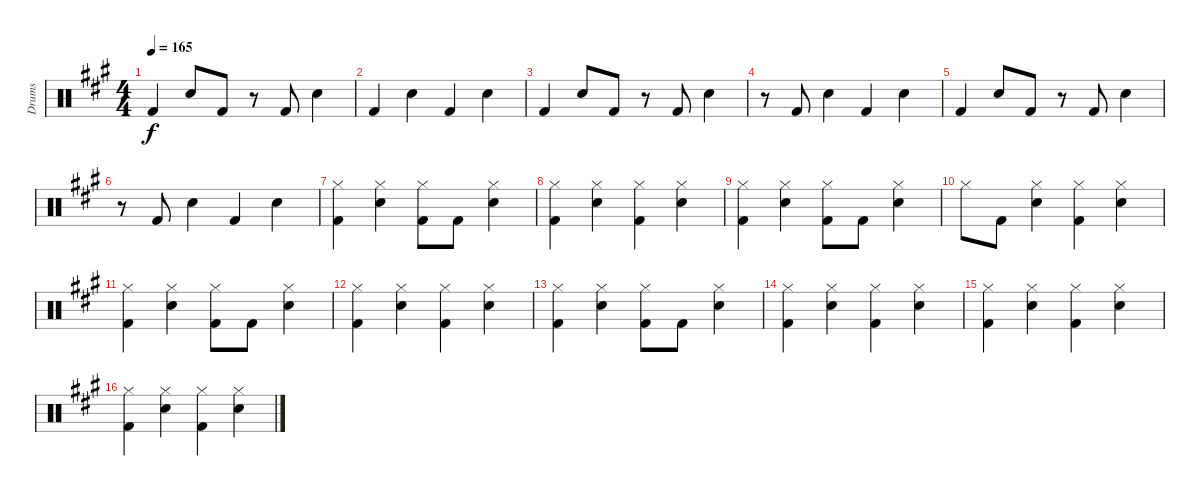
\track ("Drums" "Drums") {instrument percussion}
\staff {score}
\articulation defaults
\ts (4 4)
\tempo 165
\clef neutral
\ks a "Kick (hit) 2".4{dy f} "Electric Snare (hit)".8 "Kick (hit) 2".8
r.8 "Kick (hit) 2".8 "Electric Snare (hit)".4 |
"Kick (hit) 2".4 "Electric Snare (hit)".4 "Kick (hit) 2".4 "Electric Snare (hit)".4 |
"Kick (hit) 2".4 "Electric Snare (hit)".8 "Kick (hit) 2".8 r.8 "Kick (hit) 2".8 "Electric Snare (hit)".4 |
r.8 "Kick (hit) 2".8 "Electric Snare (hit)".4 "Kick (hit) 2".4 "Electric Snare (hit)".4 |
"Kick (hit) 2".4 "Electric Snare (hit)".8 "Kick (hit) 2".8 r.8 "Kick (hit) 2".8 "Electric Snare (hit)".4 |
r.8 "Kick (hit) 2".8 "Electric Snare (hit)".4 "Kick (hit) 2".4 "Electric Snare (hit)".4 |
("Hi-Hat (closed)" "Kick (hit) 2").4 ("Hi-Hat (closed)" "Electric Snare (hit)").4 ("Hi-Hat (closed)" "Kick (hit) 2").8 "Kick (hit) 2".8 ("Hi-Hat (closed)" "Electric Snare (hit)").4 |
("Hi-Hat (closed)" "Kick (hit) 2").4 ("Hi-Hat (closed)" "Electric Snare (hit)").4 ("Hi-Hat (closed)" "Kick (hit) 2").4 ("Hi-Hat (closed)" "Electric Snare (hit)").4 |
("Hi-Hat (closed)" "Kick (hit) 2").4 ("Hi-Hat (closed)" "Electric Snare (hit)").4 ("Hi-Hat (closed)" "Kick (hit) 2").8 "Kick (hit) 2".8 ("Hi-Hat (closed)" "Electric Snare (hit)").4 |
"Hi-Hat (closed)".8 "Kick (hit) 2".8 ("Hi-Hat (closed)" "Electric Snare (hit)").4 ("Hi-Hat (closed)" "Kick (hit) 2").4 ("Hi-Hat (closed)" "Electric Snare (hit)").4 |
("Hi-Hat (closed)" "Kick (hit) 2").4 ("Hi-Hat (closed)" "Electric Snare (hit)").4 ("Hi-Hat (closed)" "Kick (hit) 2").8 "Kick (hit) 2".8 ("Hi-Hat (closed)" "Electric Snare (hit)").4 |
("Hi-Hat (closed)" "Kick (hit) 2").4 ("Hi-Hat (closed)" "Electric Snare (hit)").4 ("Hi-Hat (closed)" "Kick (hit) 2").4 ("Hi-Hat (closed)" "Electric Snare (hit)").4 |
("Hi-Hat (closed)" "Kick (hit) 2").4 ("Hi-Hat (closed)" "Electric Snare (hit)").4 ("Hi-Hat (closed)" "Kick (hit) 2").8 "Kick (hit) 2".8 ("Hi-Hat (closed)" "Electric Snare (hit)").4 |
("Hi-Hat (closed)" "Kick (hit) 2").4 ("Hi-Hat (closed)" "Electric Snare (hit)").4 ("Hi-Hat (closed)" "Kick (hit) 2").4 ("Hi-Hat (closed)" "Electric Snare (hit)").4 |
("Hi-Hat (closed)" "Kick (hit) 2").4 ("Hi-Hat (closed)" "Electric Snare (hit)").4 ("Hi-Hat (closed)" "Kick (hit) 2").4 ("Hi-Hat (closed)" "Electric Snare (hit)").4 |
("Hi-Hat (closed)" "Kick (hit) 2").4 ("Hi-Hat (closed)" "Electric Snare (hit)").4 ("Hi-Hat (closed)" "Kick (hit) 2").4 ("Hi-Hat (closed)" "Electric Snare (hit)").4
